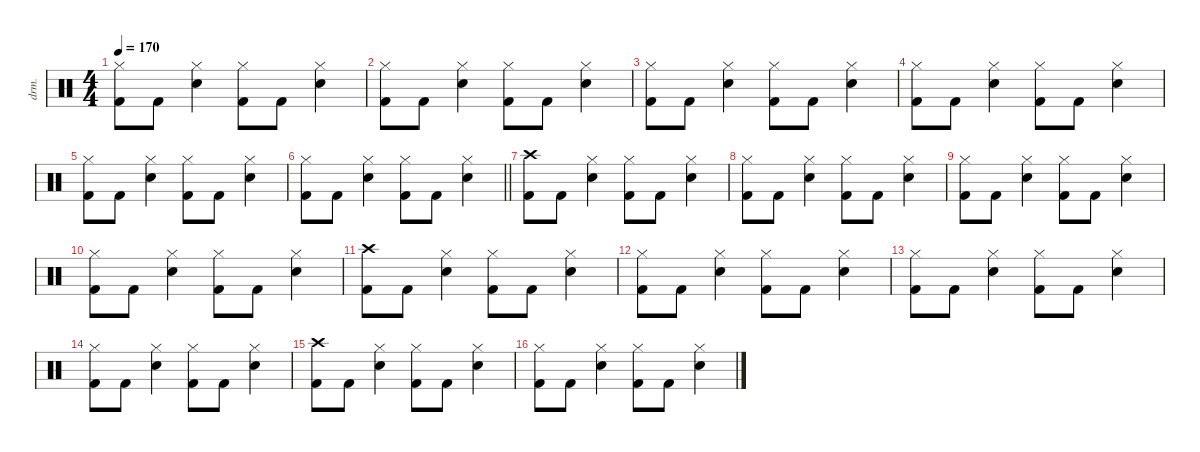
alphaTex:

\defaultSystemsLayout 4
\hideDynamics
\bracketExtendMode nobrackets
\otherSystemsTrackNameOrientation horizontal
\track ("Percussion" "drm.") {instrument percussion}
\staff {score}
\articulation defaults
\ts (4 4)
\tempo 170
\clef neutral
\ks c
("Hi-Hat (closed)" "Kick (hit) 2").8{dy f beam Down} "Kick (hit) 2".8{beam Down} ("Hi-Hat (closed)" "Snare (hit) 2").4{beam Down} ("Hi-Hat (closed)" "Kick (hit) 2").8{beam Down} "Kick (hit) 2".8{beam Down} ("Hi-Hat (closed)" "Snare (hit) 2").4{beam Down} |
("Hi-Hat (closed)" "Kick (hit) 2").8{beam Down} "Kick (hit) 2".8{beam Down} ("Hi-Hat (closed)" "Snare (hit) 2").4{beam Down} ("Hi-Hat (closed)" "Kick (hit) 2").8{beam Down} "Kick (hit) 2".8{beam Down} ("Hi-Hat (closed)" "Snare (hit) 2").4{beam Down} |
("Hi-Hat (closed)" "Kick (hit) 2").8{beam Down} "Kick (hit) 2".8{beam Down} ("Hi-Hat (closed)" "Snare (hit) 2").4{beam Down} ("Hi-Hat (closed)" "Kick (hit) 2").8{beam Down} "Kick (hit) 2".8{beam Down} ("Hi-Hat (closed)" "Snare (hit) 2").4{beam Down} |
("Hi-Hat (closed)" "Kick (hit) 2").8{beam Down} "Kick (hit) 2".8{beam Down} ("Hi-Hat (closed)" "Snare (hit) 2").4{beam Down} ("Hi-Hat (closed)" "Kick (hit) 2").8{beam Down} "Kick (hit) 2".8{beam Down} ("Hi-Hat (closed)" "Snare (hit) 2").4{beam Down} |
("Hi-Hat (closed)" "Kick (hit) 2").8{beam Down} "Kick (hit) 2".8{beam Down} ("Hi-Hat (closed)" "Snare (hit) 2").4{beam Down} ("Hi-Hat (closed)" "Kick (hit) 2").8{beam Down} "Kick (hit) 2".8{beam Down} ("Hi-Hat (closed)" "Snare (hit) 2").4{beam Down} |
\barLineRight lightlight
("Hi-Hat (closed)" "Kick (hit) 2").8{beam Down} "Kick (hit) 2".8{beam Down} ("Hi-Hat (closed)" "Snare (hit) 2").4{beam Down} ("Hi-Hat (closed)" "Kick (hit) 2").8{beam Down} "Kick (hit) 2".8{beam Down} ("Hi-Hat (closed)" "Snare (hit) 2").4{beam Down} |
("Crash high (hit)" "Kick (hit) 2").8{beam Down} "Kick (hit) 2".8{beam Down} ("Hi-Hat (closed)" "Snare (hit) 2").4{beam Down} ("Hi-Hat (closed)" "Kick (hit) 2").8{beam Down} "Kick (hit) 2".8{beam Down} ("Hi-Hat (closed)" "Snare (hit) 2").4{beam Down} |
("Hi-Hat (closed)" "Kick (hit) 2").8{beam Down} "Kick (hit) 2".8{beam Down} ("Hi-Hat (closed)" "Snare (hit) 2").4{beam Down} ("Hi-Hat (closed)" "Kick (hit) 2").8{beam Down} "Kick (hit) 2".8{beam Down} ("Hi-Hat (closed)" "Snare (hit) 2").4{beam Down} |
("Hi-Hat (closed)" "Kick (hit) 2").8{beam Down} "Kick (hit) 2".8{beam Down} ("Hi-Hat (closed)" "Snare (hit) 2").4{beam Down} ("Hi-Hat (closed)" "Kick (hit) 2").8{beam Down} "Kick (hit) 2".8{beam Down} ("Hi-Hat (closed)" "Snare (hit) 2").4{beam Down} |
("Hi-Hat (closed)" "Kick (hit) 2").8{beam Down} "Kick (hit) 2".8{beam Down} ("Hi-Hat (closed)" "Snare (hit) 2").4{beam Down} ("Hi-Hat (closed)" "Kick (hit) 2").8{beam Down} "Kick (hit) 2".8{beam Down} ("Hi-Hat (closed)" "Snare (hit) 2").4{beam Down} |
("Crash high (hit)" "Kick (hit) 2").8{beam Down} "Kick (hit) 2".8{beam Down} ("Hi-Hat (closed)" "Snare (hit) 2").4{beam Down} ("Hi-Hat (closed)" "Kick (hit) 2").8{beam Down} "Kick (hit) 2".8{beam Down} ("Hi-Hat (closed)" "Snare (hit) 2").4{beam Down} |
("Hi-Hat (closed)" "Kick (hit) 2").8{beam Down} "Kick (hit) 2".8{beam Down} ("Hi-Hat (closed)" "Snare (hit) 2").4{beam Down} ("Hi-Hat (closed)" "Kick (hit) 2").8{beam Down} "Kick (hit) 2".8{beam Down} ("Hi-Hat (closed)" "Snare (hit) 2").4{beam Down} |
("Hi-Hat (closed)" "Kick (hit) 2").8{beam Down} "Kick (hit) 2".8{beam Down} ("Hi-Hat (closed)" "Snare (hit) 2").4{beam Down} ("Hi-Hat (closed)" "Kick (hit) 2").8{beam Down} "Kick (hit) 2".8{beam Down} ("Hi-Hat (closed)" "Snare (hit) 2").4{beam Down} |
("Hi-Hat (closed)" "Kick (hit) 2").8{beam Down} "Kick (hit) 2".8{beam Down} ("Hi-Hat (closed)" "Snare (hit) 2").4{beam Down} ("Hi-Hat (closed)" "Kick (hit) 2").8{beam Down} "Kick (hit) 2".8{beam Down} ("Hi-Hat (closed)" "Snare (hit) 2").4{beam Down} |
("Crash high (hit)" "Kick (hit) 2").8{beam Down} "Kick (hit) 2".8{beam Down} ("Hi-Hat (closed)" "Snare (hit) 2").4{beam Down} ("Hi-Hat (closed)" "Kick (hit) 2").8{beam Down} "Kick (hit) 2".8{beam Down} ("Hi-Hat (closed)" "Snare (hit) 2").4{beam Down} |
("Hi-Hat (closed)" "Kick (hit) 2").8{beam Down} "Kick (hit) 2".8{beam Down} ("Hi-Hat (closed)" "Snare (hit) 2").4{beam Down} ("Hi-Hat (closed)" "Kick (hit) 2").8{beam Down} "Kick (hit) 2".8{beam Down} ("Hi-Hat (closed)" "Snare (hit) 2").4{beam Down}
